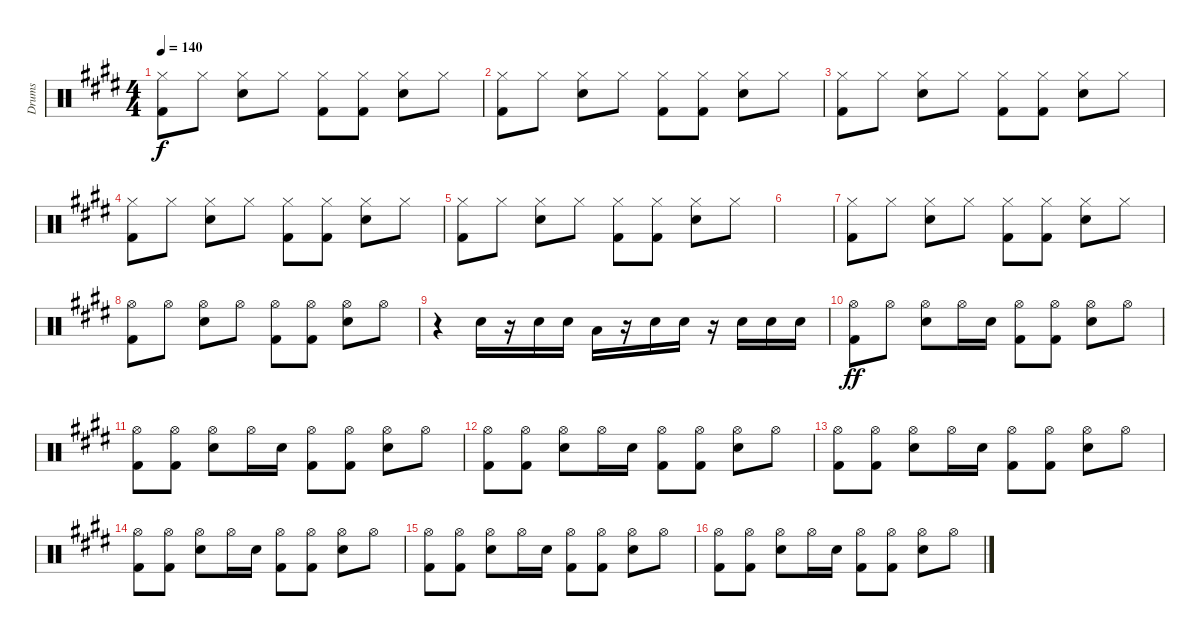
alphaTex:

\track ("Drums" "Drums") {instrument percussion}
\staff {score}
\articulation defaults
\ts (4 4)
\tempo 140
\clef neutral
\ks c#minor
("Hi-Hat (closed)" "Kick (hit) 2").8{dy f} "Hi-Hat (closed)".8 ("Hi-Hat (closed)" "Snare (hit) 2").8 "Hi-Hat (closed)".8 ("Hi-Hat (closed)" "Kick (hit) 2").8 ("Hi-Hat (closed)" "Kick (hit) 2").8 ("Hi-Hat (closed)" "Snare (hit) 2").8 "Hi-Hat (closed)".8 |
("Hi-Hat (closed)" "Kick (hit) 2").8 "Hi-Hat (closed)".8 ("Hi-Hat (closed)" "Snare (hit) 2").8 "Hi-Hat (closed)".8 ("Hi-Hat (closed)" "Kick (hit) 2").8 ("Hi-Hat (closed)" "Kick (hit) 2").8 ("Hi-Hat (closed)" "Snare (hit) 2").8 "Hi-Hat (closed)".8 |
("Hi-Hat (closed)" "Kick (hit) 2").8 "Hi-Hat (closed)".8 ("Hi-Hat (closed)" "Snare (hit) 2").8 "Hi-Hat (closed)".8 ("Hi-Hat (closed)" "Kick (hit) 2").8 ("Hi-Hat (closed)" "Kick (hit) 2").8 ("Hi-Hat (closed)" "Snare (hit) 2").8 "Hi-Hat (closed)".8 |
("Hi-Hat (closed)" "Kick (hit) 2").8 "Hi-Hat (closed)".8 ("Hi-Hat (closed)" "Snare (hit) 2").8 "Hi-Hat (closed)".8 ("Hi-Hat (closed)" "Kick (hit) 2").8 ("Hi-Hat (closed)" "Kick (hit) 2").8 ("Hi-Hat (closed)" "Snare (hit) 2").8 "Hi-Hat (closed)".8 |
("Hi-Hat (closed)" "Kick (hit) 2").8 "Hi-Hat (closed)".8 ("Hi-Hat (closed)" "Snare (hit) 2").8 "Hi-Hat (closed)".8 ("Hi-Hat (closed)" "Kick (hit) 2").8 ("Hi-Hat (closed)" "Kick (hit) 2").8 ("Hi-Hat (closed)" "Snare (hit) 2").8 "Hi-Hat (closed)".8 |
|
("Hi-Hat (closed)" "Kick (hit) 2").8 "Hi-Hat (closed)".8 ("Hi-Hat (closed)" "Snare (hit) 2").8 "Hi-Hat (closed)".8 ("Hi-Hat (closed)" "Kick (hit) 2").8 ("Hi-Hat (closed)" "Kick (hit) 2").8 ("Hi-Hat (closed)" "Snare (hit) 2").8 "Hi-Hat (closed)".8 |
("Hi-Hat (open)" "Kick (hit) 2").8 "Hi-Hat (open)".8 ("Hi-Hat (open)" "Snare (hit) 2").8 "Hi-Hat (open)".8 ("Hi-Hat (open)" "Kick (hit) 2").8 ("Hi-Hat (open)" "Kick (hit) 2").8 ("Hi-Hat (open)" "Snare (hit) 2").8 "Hi-Hat (open)".8 |
r.4 "Snare (hit) 2".16 r.16 "Snare (hit) 2".16 "Snare (hit) 2".16 "Low Tom (hit)".16 r.16 "Snare (hit) 2".16 "Snare (hit) 2".16 r.16 "Snare (hit) 2".16 "Snare (hit) 2".16 "Snare (hit) 2".16 |
("Hi-Hat (open)" "Kick (hit) 2").8{dy ff} "Hi-Hat (open)".8 ("Hi-Hat (open)" "Snare (hit) 2").8 "Hi-Hat (open)".16 "Snare (hit) 2".16 ("Hi-Hat (open)" "Kick (hit) 2").8 ("Hi-Hat (open)" "Kick (hit) 2").8 ("Hi-Hat (open)" "Snare (hit) 2").8 "Hi-Hat (open)".8 |
("Hi-Hat (open)" "Kick (hit) 2").8 ("Hi-Hat (open)" "Kick (hit) 2").8 ("Hi-Hat (open)" "Snare (hit) 2").8 "Hi-Hat (open)".16 "Snare (hit) 2".16 ("Hi-Hat (open)" "Kick (hit) 2").8 ("Hi-Hat (open)" "Kick (hit) 2").8 ("Hi-Hat (open)" "Snare (hit) 2").8 "Hi-Hat (open)".8 |
("Hi-Hat (open)" "Kick (hit) 2").8 ("Hi-Hat (open)" "Kick (hit) 2").8 ("Hi-Hat (open)" "Snare (hit) 2").8 "Hi-Hat (open)".16 "Snare (hit) 2".16 ("Hi-Hat (open)" "Kick (hit) 2").8 ("Hi-Hat (open)" "Kick (hit) 2").8 ("Hi-Hat (open)" "Snare (hit) 2").8 "Hi-Hat (open)".8 |
("Hi-Hat (open)" "Kick (hit) 2").8 ("Hi-Hat (open)" "Kick (hit) 2").8 ("Hi-Hat (open)" "Snare (hit) 2").8 "Hi-Hat (open)".16 "Snare (hit) 2".16 ("Hi-Hat (open)" "Kick (hit) 2").8 ("Hi-Hat (open)" "Kick (hit) 2").8 ("Hi-Hat (open)" "Snare (hit) 2").8 "Hi-Hat (open)".8 |
("Hi-Hat (open)" "Kick (hit) 2").8 ("Hi-Hat (open)" "Kick (hit) 2").8 ("Hi-Hat (open)" "Snare (hit) 2").8 "Hi-Hat (open)".16 "Snare (hit) 2".16 ("Hi-Hat (open)" "Kick (hit) 2").8 ("Hi-Hat (open)" "Kick (hit) 2").8 ("Hi-Hat (open)" "Snare (hit) 2").8 "Hi-Hat (open)".8 |
("Hi-Hat (open)" "Kick (hit) 2").8 ("Hi-Hat (open)" "Kick (hit) 2").8 ("Hi-Hat (open)" "Snare (hit) 2").8 "Hi-Hat (open)".16 "Snare (hit) 2".16 ("Hi-Hat (open)" "Kick (hit) 2").8 ("Hi-Hat (open)" "Kick (hit) 2").8 ("Hi-Hat (open)" "Snare (hit) 2").8 "Hi-Hat (open)".8 |
("Hi-Hat (open)" "Kick (hit) 2").8 ("Hi-Hat (open)" "Kick (hit) 2").8 ("Hi-Hat (open)" "Snare (hit) 2").8 "Hi-Hat (open)".16 "Snare (hit) 2".16 ("Hi-Hat (open)" "Kick (hit) 2").8 ("Hi-Hat (open)" "Kick (hit) 2").8 ("Hi-Hat (open)" "Snare (hit) 2").8 "Hi-Hat (open)".8
